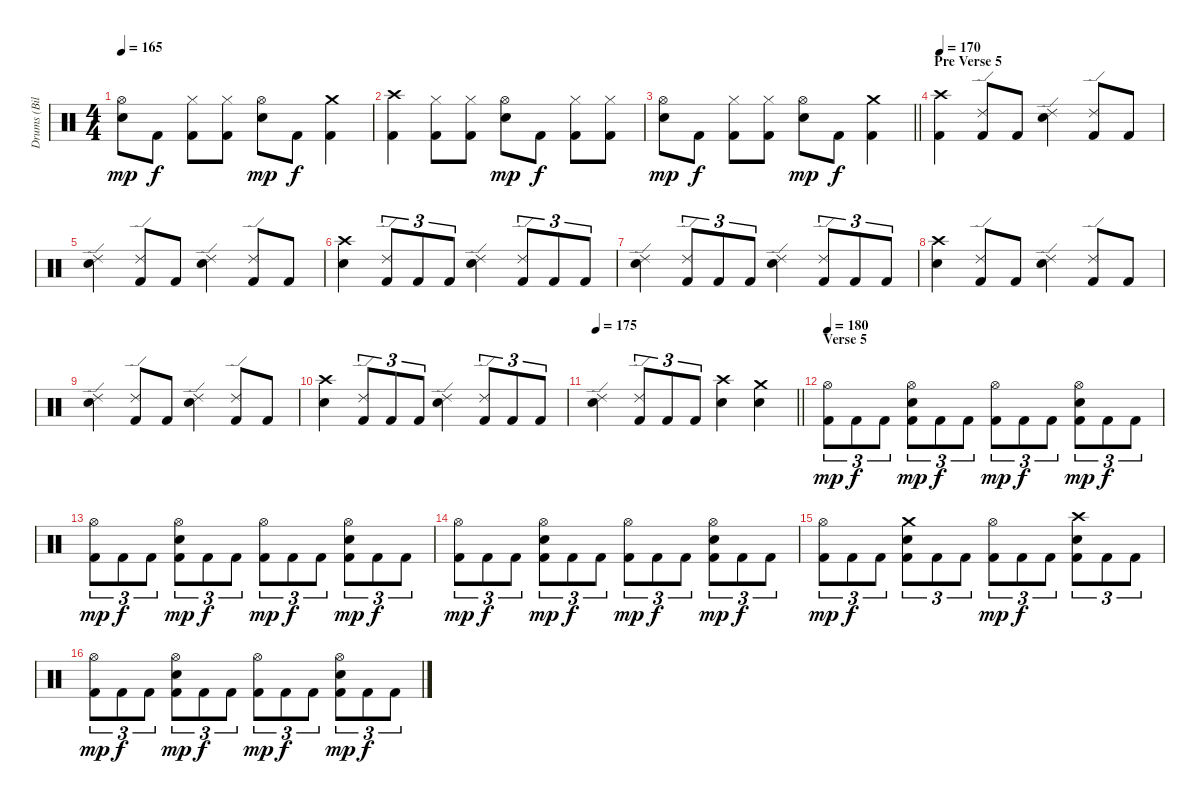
\track ("Drums (Bill Andrews)" "Drums (Bil") {instrument percussion}
\staff
\articulation defaults
\ts (4 4)
\tempo 165
\clef neutral
\ks c
("Hi-Hat (open)" "Electric Snare (hit)").8{dy mp} "Kick (hit) 2".8{dy f} ("Hi-Hat (closed)" "Kick (hit) 2").8 ("Hi-Hat (closed)" "Kick (hit) 2").8 ("Hi-Hat (open)" "Electric Snare (hit)").8{dy mp} "Kick (hit) 2".8{dy f} ("Crash medium (hit)" "Kick (hit) 2").4 |
("Crash high (hit)" "Kick (hit) 2").4 ("Hi-Hat (closed)" "Kick (hit) 2").8 ("Hi-Hat (closed)" "Kick (hit) 2").8 ("Hi-Hat (open)" "Electric Snare (hit)").8{dy mp} "Kick (hit) 2".8{dy f} ("Hi-Hat (closed)" "Kick (hit) 2").8 ("Hi-Hat (closed)" "Kick (hit) 2").8 |
\barLineRight lightlight
("Hi-Hat (open)" "Electric Snare (hit)").8{dy mp} "Kick (hit) 2".8{dy f} ("Hi-Hat (closed)" "Kick (hit) 2").8 ("Hi-Hat (closed)" "Kick (hit) 2").8 ("Hi-Hat (open)" "Electric Snare (hit)").8{dy mp} "Kick (hit) 2".8{dy f} ("Crash medium (hit)" "Kick (hit) 2").4 |
\section ("" "Pre Verse 5")
\tempo 170
("Crash high (hit)" "Kick (hit) 2").4 ("Ride (edge) 2" "Kick (hit) 2").8 "Kick (hit) 2".8 ("Ride (edge) 2" "Electric Snare (hit)").4 ("Ride (edge) 2" "Kick (hit) 2").8 "Kick (hit) 2".8 |
("Ride (edge) 2" "Electric Snare (hit)").4 ("Ride (edge) 2" "Kick (hit) 2").8 "Kick (hit) 2".8 ("Ride (edge) 2" "Electric Snare (hit)").4 ("Ride (edge) 2" "Kick (hit) 2").8 "Kick (hit) 2".8 |
("Crash high (hit)" "Electric Snare (hit)").4 ("Ride (edge) 2" "Kick (hit) 2").8{tu (3 2)} "Kick (hit) 2".8{tu (3 2)} "Kick (hit) 2".8{tu (3 2)} ("Ride (edge) 2" "Electric Snare (hit)").4 ("Ride (edge) 2" "Kick (hit) 2").8{tu (3 2)} "Kick (hit) 2".8{tu (3 2)} "Kick (hit) 2".8{tu (3 2)} |
("Ride (edge) 2" "Electric Snare (hit)").4 ("Ride (edge) 2" "Kick (hit) 2").8{tu (3 2)} "Kick (hit) 2".8{tu (3 2)} "Kick (hit) 2".8{tu (3 2)} ("Ride (edge) 2" "Electric Snare (hit)").4 ("Ride (edge) 2" "Kick (hit) 2").8{tu (3 2)} "Kick (hit) 2".8{tu (3 2)} "Kick (hit) 2".8{tu (3 2)} |
("Crash high (hit)" "Electric Snare (hit)").4 ("Ride (edge) 2" "Kick (hit) 2").8 "Kick (hit) 2".8 ("Ride (edge) 2" "Electric Snare (hit)").4 ("Ride (edge) 2" "Kick (hit) 2").8 "Kick (hit) 2".8 |
("Ride (edge) 2" "Electric Snare (hit)").4 ("Ride (edge) 2" "Kick (hit) 2").8 "Kick (hit) 2".8 ("Ride (edge) 2" "Electric Snare (hit)").4 ("Ride (edge) 2" "Kick (hit) 2").8 "Kick (hit) 2".8 |
("Crash high (hit)" "Electric Snare (hit)").4 ("Ride (edge) 2" "Kick (hit) 2").8{tu (3 2)} "Kick (hit) 2".8{tu (3 2)} "Kick (hit) 2".8{tu (3 2)} ("Ride (edge) 2" "Electric Snare (hit)").4 ("Ride (edge) 2" "Kick (hit) 2").8{tu (3 2)} "Kick (hit) 2".8{tu (3 2)} "Kick (hit) 2".8{tu (3 2)} |
\tempo 175
\barLineRight lightlight
("Ride (edge) 2" "Electric Snare (hit)").4 ("Ride (edge) 2" "Kick (hit) 2").8{tu (3 2)} "Kick (hit) 2".8{tu (3 2)} "Kick (hit) 2".8{tu (3 2)} ("Crash high (hit)" "Electric Snare (hit)").4 ("Crash medium (hit)" "Electric Snare (hit)").4 |
\section ("" "Verse 5")
\tempo 180
("Hi-Hat (open)" "Kick (hit) 2").8{tu (3 2) dy mp} "Kick (hit) 2".8{tu (3 2) dy f} "Kick (hit) 2".8{tu (3 2)} ("Hi-Hat (open)" "Kick (hit) 2" "Electric Snare (hit)").8{tu (3 2) dy mp} "Kick (hit) 2".8{tu (3 2) dy f} "Kick (hit) 2".8{tu (3 2)} ("Hi-Hat (open)" "Kick (hit) 2").8{tu (3 2) dy mp} "Kick (hit) 2".8{tu (3 2) dy f} "Kick (hit) 2".8{tu (3 2)} ("Hi-Hat (open)" "Kick (hit) 2" "Electric Snare (hit)").8{tu (3 2) dy mp} "Kick (hit) 2".8{tu (3 2) dy f} "Kick (hit) 2".8{tu (3 2)} |
("Hi-Hat (open)" "Kick (hit) 2").8{tu (3 2) dy mp} "Kick (hit) 2".8{tu (3 2) dy f} "Kick (hit) 2".8{tu (3 2)} ("Hi-Hat (open)" "Kick (hit) 2" "Electric Snare (hit)").8{tu (3 2) dy mp} "Kick (hit) 2".8{tu (3 2) dy f} "Kick (hit) 2".8{tu (3 2)} ("Hi-Hat (open)" "Kick (hit) 2").8{tu (3 2) dy mp} "Kick (hit) 2".8{tu (3 2) dy f} "Kick (hit) 2".8{tu (3 2)} ("Hi-Hat (open)" "Kick (hit) 2" "Electric Snare (hit)").8{tu (3 2) dy mp} "Kick (hit) 2".8{tu (3 2) dy f} "Kick (hit) 2".8{tu (3 2)} |
("Hi-Hat (open)" "Kick (hit) 2").8{tu (3 2) dy mp} "Kick (hit) 2".8{tu (3 2) dy f} "Kick (hit) 2".8{tu (3 2)} ("Hi-Hat (open)" "Kick (hit) 2" "Electric Snare (hit)").8{tu (3 2) dy mp} "Kick (hit) 2".8{tu (3 2) dy f} "Kick (hit) 2".8{tu (3 2)} ("Hi-Hat (open)" "Kick (hit) 2").8{tu (3 2) dy mp} "Kick (hit) 2".8{tu (3 2) dy f} "Kick (hit) 2".8{tu (3 2)} ("Hi-Hat (open)" "Kick (hit) 2" "Electric Snare (hit)").8{tu (3 2) dy mp} "Kick (hit) 2".8{tu (3 2) dy f} "Kick (hit) 2".8{tu (3 2)} |
("Hi-Hat (open)" "Kick (hit) 2").8{tu (3 2) dy mp} "Kick (hit) 2".8{tu (3 2) dy f} "Kick (hit) 2".8{tu (3 2)} ("Crash medium (hit)" "Kick (hit) 2" "Electric Snare (hit)").8{tu (3 2)} "Kick (hit) 2".8{tu (3 2)} "Kick (hit) 2".8{tu (3 2)} ("Hi-Hat (open)" "Kick (hit) 2").8{tu (3 2) dy mp} "Kick (hit) 2".8{tu (3 2) dy f} "Kick (hit) 2".8{tu (3 2)} ("Crash high (hit)" "Kick (hit) 2" "Electric Snare (hit)").8{tu (3 2)} "Kick (hit) 2".8{tu (3 2)} "Kick (hit) 2".8{tu (3 2)} |
("Hi-Hat (open)" "Kick (hit) 2").8{tu (3 2) dy mp} "Kick (hit) 2".8{tu (3 2) dy f} "Kick (hit) 2".8{tu (3 2)} ("Hi-Hat (open)" "Kick (hit) 2" "Electric Snare (hit)").8{tu (3 2) dy mp} "Kick (hit) 2".8{tu (3 2) dy f} "Kick (hit) 2".8{tu (3 2)} ("Hi-Hat (open)" "Kick (hit) 2").8{tu (3 2) dy mp} "Kick (hit) 2".8{tu (3 2) dy f} "Kick (hit) 2".8{tu (3 2)} ("Hi-Hat (open)" "Kick (hit) 2" "Electric Snare (hit)").8{tu (3 2) dy mp} "Kick (hit) 2".8{tu (3 2) dy f} "Kick (hit) 2".8{tu (3 2)}
